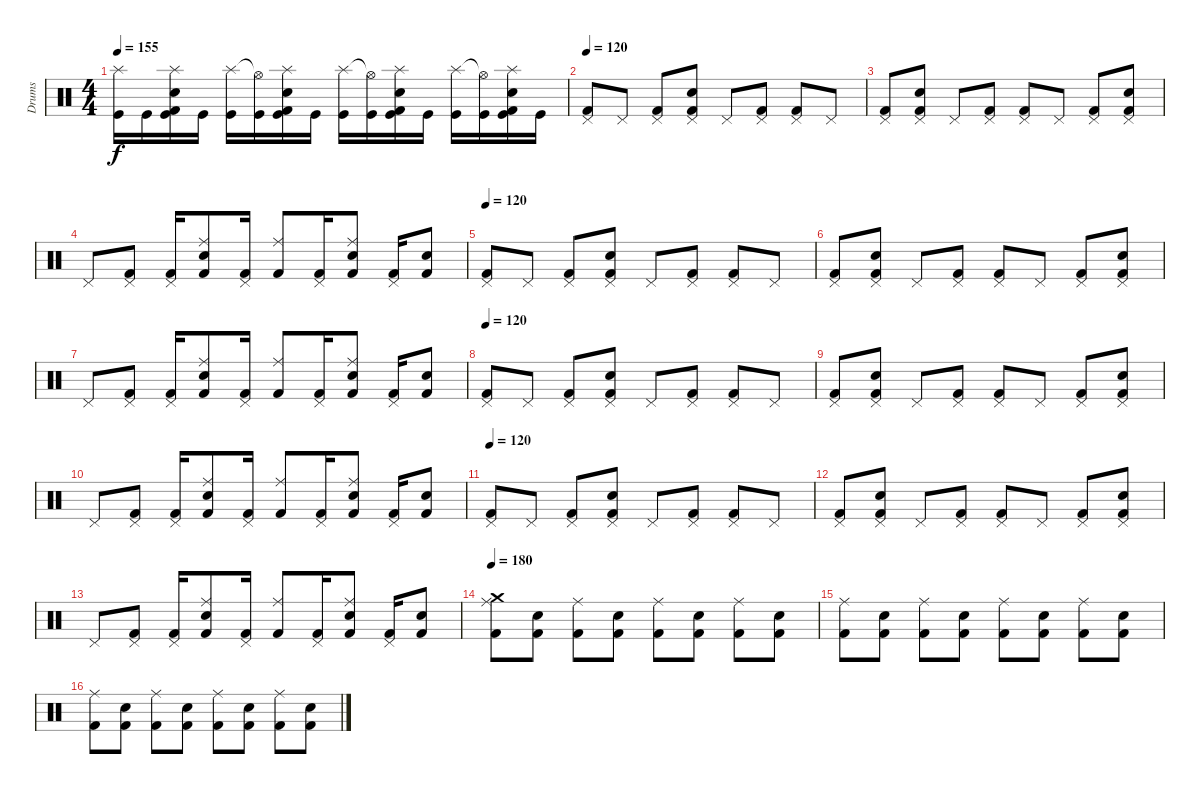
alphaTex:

\track ("Drums" "Drums") {instrument percussion}
\staff {score}
\articulation defaults
\ts (4 4)
\tempo 155
\clef neutral
\ks c
("Splash (hit)" "Kick (hit)").16{dy f} "Kick (hit)".16 ("Kick (hit) 2" "Electric Snare (hit)" "Splash (hit)" "Kick (hit)").16 "Kick (hit)".16 ("Splash (hit)" "Kick (hit)").16 ("Hi-Hat (open)"{t} "Kick (hit)").16 ("Kick (hit) 2" "Electric Snare (hit)" "Splash (hit)" "Kick (hit)").16 "Kick (hit)".16 ("Splash (hit)" "Kick (hit)").16 ("Hi-Hat (open)"{t} "Kick (hit)").16 ("Kick (hit) 2" "Electric Snare (hit)" "Splash (hit)" "Kick (hit)").16 "Kick (hit)".16 ("Splash (hit)" "Kick (hit)").16 ("Hi-Hat (open)"{t} "Kick (hit)").16 ("Kick (hit) 2" "Electric Snare (hit)" "Splash (hit)" "Kick (hit)").16 "Kick (hit)".16 |
\tempo 120
("Pedal Hi-Hat (hit)" "Kick (hit) 2").8 "Pedal Hi-Hat (hit)".8 ("Pedal Hi-Hat (hit)" "Kick (hit) 2").8 ("Pedal Hi-Hat (hit)" "Kick (hit) 2" "Electric Snare (hit)").8 "Pedal Hi-Hat (hit)".8 ("Pedal Hi-Hat (hit)" "Kick (hit) 2").8 ("Pedal Hi-Hat (hit)" "Kick (hit) 2").8 "Pedal Hi-Hat (hit)".8 |
("Pedal Hi-Hat (hit)" "Kick (hit) 2").8 ("Pedal Hi-Hat (hit)" "Kick (hit) 2" "Electric Snare (hit)").8 "Pedal Hi-Hat (hit)".8 ("Pedal Hi-Hat (hit)" "Kick (hit) 2").8 ("Pedal Hi-Hat (hit)" "Kick (hit) 2").8 "Pedal Hi-Hat (hit)".8 ("Pedal Hi-Hat (hit)" "Kick (hit) 2").8 ("Pedal Hi-Hat (hit)" "Kick (hit) 2" "Electric Snare (hit)").8 |
"Pedal Hi-Hat (hit)".8 ("Pedal Hi-Hat (hit)" "Kick (hit) 2").8 ("Pedal Hi-Hat (hit)" "Kick (hit) 2").16 ("Ride (middle)" "Kick (hit) 2" "Electric Snare (hit)").8 ("Pedal Hi-Hat (hit)" "Kick (hit) 2").16 ("Ride (middle)" "Kick (hit) 2").8 ("Pedal Hi-Hat (hit)" "Kick (hit) 2").16 ("Ride (middle)" "Kick (hit) 2" "Electric Snare (hit)").8 ("Pedal Hi-Hat (hit)" "Kick (hit) 2").16 ("Kick (hit) 2" "Electric Snare (hit)").8 |
\tempo 120
("Pedal Hi-Hat (hit)" "Kick (hit) 2").8 "Pedal Hi-Hat (hit)".8 ("Pedal Hi-Hat (hit)" "Kick (hit) 2").8 ("Pedal Hi-Hat (hit)" "Kick (hit) 2" "Electric Snare (hit)").8 "Pedal Hi-Hat (hit)".8 ("Pedal Hi-Hat (hit)" "Kick (hit) 2").8 ("Pedal Hi-Hat (hit)" "Kick (hit) 2").8 "Pedal Hi-Hat (hit)".8 |
("Pedal Hi-Hat (hit)" "Kick (hit) 2").8 ("Pedal Hi-Hat (hit)" "Kick (hit) 2" "Electric Snare (hit)").8 "Pedal Hi-Hat (hit)".8 ("Pedal Hi-Hat (hit)" "Kick (hit) 2").8 ("Pedal Hi-Hat (hit)" "Kick (hit) 2").8 "Pedal Hi-Hat (hit)".8 ("Pedal Hi-Hat (hit)" "Kick (hit) 2").8 ("Pedal Hi-Hat (hit)" "Kick (hit) 2" "Electric Snare (hit)").8 |
"Pedal Hi-Hat (hit)".8 ("Pedal Hi-Hat (hit)" "Kick (hit) 2").8 ("Pedal Hi-Hat (hit)" "Kick (hit) 2").16 ("Ride (middle)" "Kick (hit) 2" "Electric Snare (hit)").8 ("Pedal Hi-Hat (hit)" "Kick (hit) 2").16 ("Ride (middle)" "Kick (hit) 2").8 ("Pedal Hi-Hat (hit)" "Kick (hit) 2").16 ("Ride (middle)" "Kick (hit) 2" "Electric Snare (hit)").8 ("Pedal Hi-Hat (hit)" "Kick (hit) 2").16 ("Kick (hit) 2" "Electric Snare (hit)").8 |
\tempo 120
("Pedal Hi-Hat (hit)" "Kick (hit) 2").8 "Pedal Hi-Hat (hit)".8 ("Pedal Hi-Hat (hit)" "Kick (hit) 2").8 ("Pedal Hi-Hat (hit)" "Kick (hit) 2" "Electric Snare (hit)").8 "Pedal Hi-Hat (hit)".8 ("Pedal Hi-Hat (hit)" "Kick (hit) 2").8 ("Pedal Hi-Hat (hit)" "Kick (hit) 2").8 "Pedal Hi-Hat (hit)".8 |
("Pedal Hi-Hat (hit)" "Kick (hit) 2").8 ("Pedal Hi-Hat (hit)" "Kick (hit) 2" "Electric Snare (hit)").8 "Pedal Hi-Hat (hit)".8 ("Pedal Hi-Hat (hit)" "Kick (hit) 2").8 ("Pedal Hi-Hat (hit)" "Kick (hit) 2").8 "Pedal Hi-Hat (hit)".8 ("Pedal Hi-Hat (hit)" "Kick (hit) 2").8 ("Pedal Hi-Hat (hit)" "Kick (hit) 2" "Electric Snare (hit)").8 |
"Pedal Hi-Hat (hit)".8 ("Pedal Hi-Hat (hit)" "Kick (hit) 2").8 ("Pedal Hi-Hat (hit)" "Kick (hit) 2").16 ("Ride (middle)" "Kick (hit) 2" "Electric Snare (hit)").8 ("Pedal Hi-Hat (hit)" "Kick (hit) 2").16 ("Ride (middle)" "Kick (hit) 2").8 ("Pedal Hi-Hat (hit)" "Kick (hit) 2").16 ("Ride (middle)" "Kick (hit) 2" "Electric Snare (hit)").8 ("Pedal Hi-Hat (hit)" "Kick (hit) 2").16 ("Kick (hit) 2" "Electric Snare (hit)").8 |
\tempo 120
("Pedal Hi-Hat (hit)" "Kick (hit) 2").8 "Pedal Hi-Hat (hit)".8 ("Pedal Hi-Hat (hit)" "Kick (hit) 2").8 ("Pedal Hi-Hat (hit)" "Kick (hit) 2" "Electric Snare (hit)").8 "Pedal Hi-Hat (hit)".8 ("Pedal Hi-Hat (hit)" "Kick (hit) 2").8 ("Pedal Hi-Hat (hit)" "Kick (hit) 2").8 "Pedal Hi-Hat (hit)".8 |
("Pedal Hi-Hat (hit)" "Kick (hit) 2").8 ("Pedal Hi-Hat (hit)" "Kick (hit) 2" "Electric Snare (hit)").8 "Pedal Hi-Hat (hit)".8 ("Pedal Hi-Hat (hit)" "Kick (hit) 2").8 ("Pedal Hi-Hat (hit)" "Kick (hit) 2").8 "Pedal Hi-Hat (hit)".8 ("Pedal Hi-Hat (hit)" "Kick (hit) 2").8 ("Pedal Hi-Hat (hit)" "Kick (hit) 2" "Electric Snare (hit)").8 |
"Pedal Hi-Hat (hit)".8 ("Pedal Hi-Hat (hit)" "Kick (hit) 2").8 ("Pedal Hi-Hat (hit)" "Kick (hit) 2").16 ("Ride (middle)" "Kick (hit) 2" "Electric Snare (hit)").8 ("Pedal Hi-Hat (hit)" "Kick (hit) 2").16 ("Ride (middle)" "Kick (hit) 2").8 ("Pedal Hi-Hat (hit)" "Kick (hit) 2").16 ("Ride (middle)" "Kick (hit) 2" "Electric Snare (hit)").8 ("Pedal Hi-Hat (hit)" "Kick (hit) 2").16 ("Kick (hit) 2" "Electric Snare (hit)").8 |
\tempo 180
("Crash medium (hit)" "Ride (middle)" "Kick (hit) 2").8 ("Kick (hit) 2" "Electric Snare (hit)").8 ("Ride (middle)" "Kick (hit) 2").8 ("Kick (hit) 2" "Electric Snare (hit)").8 ("Ride (middle)" "Kick (hit) 2").8 ("Kick (hit) 2" "Electric Snare (hit)").8 ("Ride (middle)" "Kick (hit) 2").8 ("Kick (hit) 2" "Electric Snare (hit)").8 |
("Ride (middle)" "Kick (hit) 2").8 ("Kick (hit) 2" "Electric Snare (hit)").8 ("Ride (middle)" "Kick (hit) 2").8 ("Kick (hit) 2" "Electric Snare (hit)").8 ("Ride (middle)" "Kick (hit) 2").8 ("Kick (hit) 2" "Electric Snare (hit)").8 ("Ride (middle)" "Kick (hit) 2").8 ("Kick (hit) 2" "Electric Snare (hit)").8 |
("Ride (middle)" "Kick (hit) 2").8 ("Kick (hit) 2" "Electric Snare (hit)").8 ("Ride (middle)" "Kick (hit) 2").8 ("Kick (hit) 2" "Electric Snare (hit)").8 ("Ride (middle)" "Kick (hit) 2").8 ("Kick (hit) 2" "Electric Snare (hit)").8 ("Ride (middle)" "Kick (hit) 2").8 ("Kick (hit) 2" "Electric Snare (hit)").8
